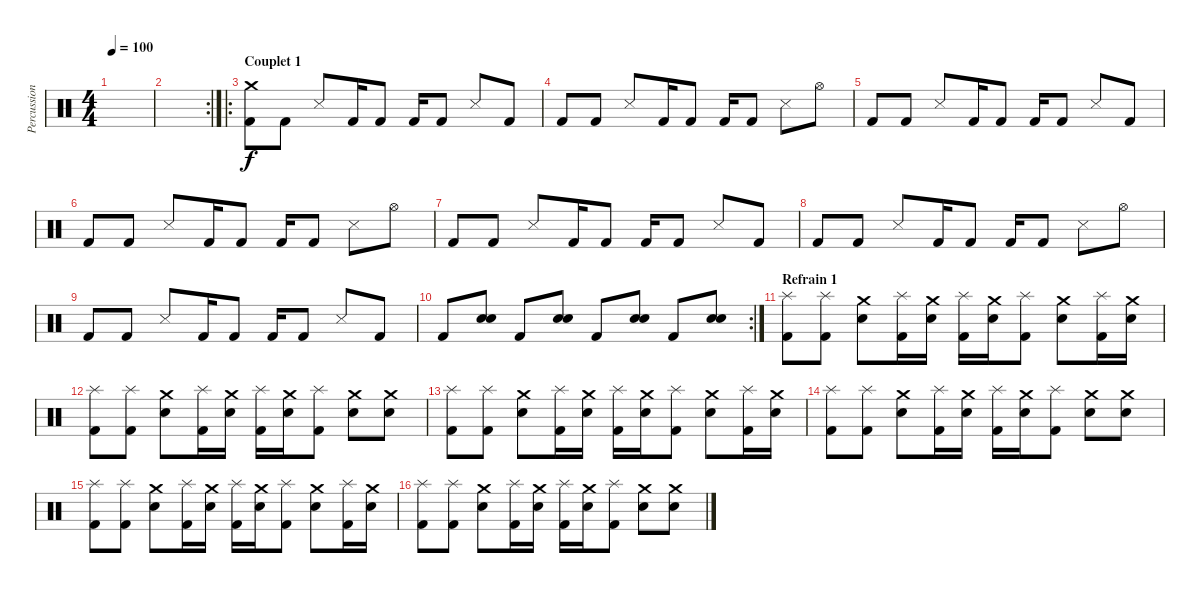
\track ("Percussions" "Percussion") {instrument percussion}
\staff {score}
\articulation defaults
\ts (4 4)
\tempo 100
\clef neutral
\ks c
|
\rc 2
|
\ro
\section ("" "Couplet 1")
("Crash medium (hit)" "Kick (hit) 2").8 "Kick (hit) 2".8 "Snare (side stick) 3".8 "Kick (hit) 2".16 "Kick (hit) 2".8 "Kick (hit) 2".16 "Kick (hit) 2".8 "Snare (side stick) 3".8 "Kick (hit) 2".8 |
"Kick (hit) 2".8 "Kick (hit) 2".8 "Snare (side stick) 3".8 "Kick (hit) 2".16 "Kick (hit) 2".8 "Kick (hit) 2".16 "Kick (hit) 2".8 "Snare (side stick) 3".8 "Hi-Hat (open)".8 |
"Kick (hit) 2".8 "Kick (hit) 2".8 "Snare (side stick) 3".8 "Kick (hit) 2".16 "Kick (hit) 2".8 "Kick (hit) 2".16 "Kick (hit) 2".8 "Snare (side stick) 3".8 "Kick (hit) 2".8 |
"Kick (hit) 2".8 "Kick (hit) 2".8 "Snare (side stick) 3".8 "Kick (hit) 2".16 "Kick (hit) 2".8 "Kick (hit) 2".16 "Kick (hit) 2".8 "Snare (side stick) 3".8 "Hi-Hat (open)".8 |
"Kick (hit) 2".8 "Kick (hit) 2".8 "Snare (side stick) 3".8 "Kick (hit) 2".16 "Kick (hit) 2".8 "Kick (hit) 2".16 "Kick (hit) 2".8 "Snare (side stick) 3".8 "Kick (hit) 2".8 |
"Kick (hit) 2".8 "Kick (hit) 2".8 "Snare (side stick) 3".8 "Kick (hit) 2".16 "Kick (hit) 2".8 "Kick (hit) 2".16 "Kick (hit) 2".8 "Snare (side stick) 3".8 "Hi-Hat (open)".8 |
"Kick (hit) 2".8 "Kick (hit) 2".8 "Snare (side stick) 3".8 "Kick (hit) 2".16 "Kick (hit) 2".8 "Kick (hit) 2".16 "Kick (hit) 2".8 "Snare (side stick) 3".8 "Kick (hit) 2".8 |
\rc 2 "Kick (hit) 2".8
("Snare (hit) 2" "Snare (hit) 2").8 "Kick (hit) 2".8 ("Snare (hit) 2" "Snare (hit) 2").8 "Kick (hit) 2".8 ("Snare (hit) 2" "Snare (hit) 2").8 "Kick (hit) 2".8 ("Snare (hit) 2" "Snare (hit) 2").8 |
\section ("" "Refrain 1")
("Splash (hit)" "Kick (hit) 2").8 ("Splash (hit)" "Kick (hit) 2").8 ("Crash medium (hit)" "Snare (hit) 2").8 ("Splash (hit)" "Kick (hit) 2").16 ("Crash medium (hit)" "Snare (hit) 2").16 ("Splash (hit)" "Kick (hit) 2").16 ("Crash medium (hit)" "Snare (hit) 2").16 ("Splash (hit)" "Kick (hit) 2").8 ("Crash medium (hit)" "Snare (hit) 2").8 ("Splash (hit)" "Kick (hit) 2").16 ("Crash medium (hit)" "Snare (hit) 2").16 |
("Splash (hit)" "Kick (hit) 2").8 ("Splash (hit)" "Kick (hit) 2").8 ("Crash medium (hit)" "Snare (hit) 2").8 ("Splash (hit)" "Kick (hit) 2").16 ("Crash medium (hit)" "Snare (hit) 2").16 ("Splash (hit)" "Kick (hit) 2").16 ("Crash medium (hit)" "Snare (hit) 2").16 ("Splash (hit)" "Kick (hit) 2").8 ("Crash medium (hit)" "Snare (hit) 2").8 ("Crash medium (hit)" "Snare (hit) 2").8 |
("Splash (hit)" "Kick (hit) 2").8 ("Splash (hit)" "Kick (hit) 2").8 ("Crash medium (hit)" "Snare (hit) 2").8 ("Splash (hit)" "Kick (hit) 2").16 ("Crash medium (hit)" "Snare (hit) 2").16 ("Splash (hit)" "Kick (hit) 2").16 ("Crash medium (hit)" "Snare (hit) 2").16 ("Splash (hit)" "Kick (hit) 2").8 ("Crash medium (hit)" "Snare (hit) 2").8 ("Splash (hit)" "Kick (hit) 2").16 ("Crash medium (hit)" "Snare (hit) 2").16 |
("Splash (hit)" "Kick (hit) 2").8 ("Splash (hit)" "Kick (hit) 2").8 ("Crash medium (hit)" "Snare (hit) 2").8 ("Splash (hit)" "Kick (hit) 2").16 ("Crash medium (hit)" "Snare (hit) 2").16 ("Splash (hit)" "Kick (hit) 2").16 ("Crash medium (hit)" "Snare (hit) 2").16 ("Splash (hit)" "Kick (hit) 2").8 ("Crash medium (hit)" "Snare (hit) 2").8 ("Crash medium (hit)" "Snare (hit) 2").8 |
("Splash (hit)" "Kick (hit) 2").8 ("Splash (hit)" "Kick (hit) 2").8 ("Crash medium (hit)" "Snare (hit) 2").8 ("Splash (hit)" "Kick (hit) 2").16 ("Crash medium (hit)" "Snare (hit) 2").16 ("Splash (hit)" "Kick (hit) 2").16 ("Crash medium (hit)" "Snare (hit) 2").16 ("Splash (hit)" "Kick (hit) 2").8 ("Crash medium (hit)" "Snare (hit) 2").8 ("Splash (hit)" "Kick (hit) 2").16 ("Crash medium (hit)" "Snare (hit) 2").16 |
("Splash (hit)" "Kick (hit) 2").8 ("Splash (hit)" "Kick (hit) 2").8 ("Crash medium (hit)" "Snare (hit) 2").8 ("Splash (hit)" "Kick (hit) 2").16 ("Crash medium (hit)" "Snare (hit) 2").16 ("Splash (hit)" "Kick (hit) 2").16 ("Crash medium (hit)" "Snare (hit) 2").16 ("Splash (hit)" "Kick (hit) 2").8 ("Crash medium (hit)" "Snare (hit) 2").8 ("Crash medium (hit)" "Snare (hit) 2").8
